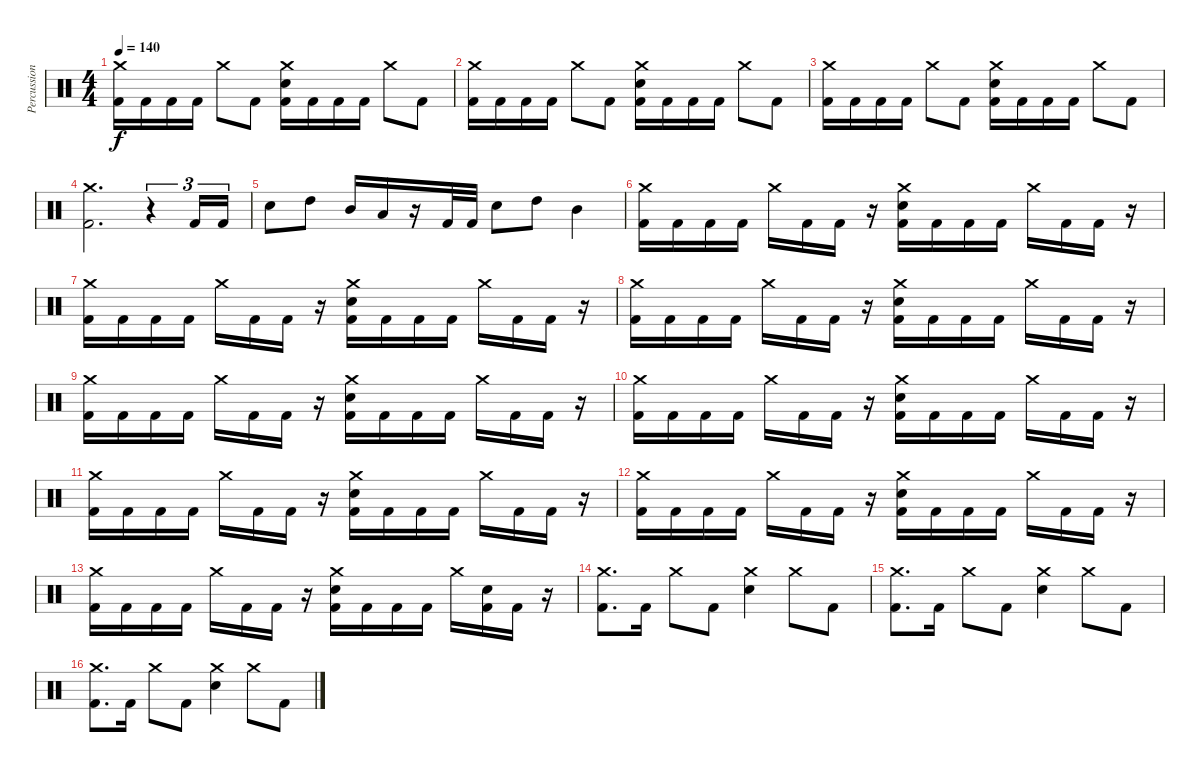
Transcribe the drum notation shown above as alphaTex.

\track ("Percussion" "Percussion") {instrument percussion}
\staff {score}
\articulation defaults
\ts (4 4)
\tempo 140
\clef neutral
\ks c
("Crash medium (hit)" "Kick (hit) 2").16{dy f} "Kick (hit) 2".16 "Kick (hit) 2".16 "Kick (hit) 2".16 "Crash medium (hit)".8 "Kick (hit) 2".8 ("Crash medium (hit)" "Electric Snare (hit)" "Kick (hit) 2").16 "Kick (hit) 2".16 "Kick (hit) 2".16 "Kick (hit) 2".16 "Crash medium (hit)".8 "Kick (hit) 2".8 |
("Crash medium (hit)" "Kick (hit) 2").16 "Kick (hit) 2".16 "Kick (hit) 2".16 "Kick (hit) 2".16 "Crash medium (hit)".8 "Kick (hit) 2".8 ("Crash medium (hit)" "Electric Snare (hit)" "Kick (hit) 2").16 "Kick (hit) 2".16 "Kick (hit) 2".16 "Kick (hit) 2".16 "Crash medium (hit)".8 "Kick (hit) 2".8 |
("Crash medium (hit)" "Kick (hit) 2").16 "Kick (hit) 2".16 "Kick (hit) 2".16 "Kick (hit) 2".16 "Crash medium (hit)".8 "Kick (hit) 2".8 ("Crash medium (hit)" "Electric Snare (hit)" "Kick (hit) 2").16 "Kick (hit) 2".16 "Kick (hit) 2".16 "Kick (hit) 2".16 "Crash medium (hit)".8 "Kick (hit) 2".8 |
("Crash medium (hit)" "Kick (hit) 2").2{d} r.4{tu (3 2)} "Kick (hit) 2".16{tu (3 2)} "Kick (hit) 2".16{tu (3 2)} |
"Electric Snare (hit)".8 "High Tom (hit)".8 "Mid Tom (hit)".16 "Low Tom (hit)".16 r.16 "Kick (hit) 2".32 "Kick (hit) 2".32 "Electric Snare (hit)".8 "High Tom (hit)".8 "Mid Tom (hit)".4 |
("Crash medium (hit)" "Kick (hit) 2").16 "Kick (hit) 2".16 "Kick (hit) 2".16 "Kick (hit) 2".16 "Crash medium (hit)".16 "Kick (hit) 2".16 "Kick (hit) 2".16 r.16 ("Crash medium (hit)" "Electric Snare (hit)" "Kick (hit) 2").16 "Kick (hit) 2".16 "Kick (hit) 2".16 "Kick (hit) 2".16 "Crash medium (hit)".16 "Kick (hit) 2".16 "Kick (hit) 2".16 r.16 |
("Crash medium (hit)" "Kick (hit) 2").16 "Kick (hit) 2".16 "Kick (hit) 2".16 "Kick (hit) 2".16 "Crash medium (hit)".16 "Kick (hit) 2".16 "Kick (hit) 2".16 r.16 ("Crash medium (hit)" "Electric Snare (hit)" "Kick (hit) 2").16 "Kick (hit) 2".16 "Kick (hit) 2".16 "Kick (hit) 2".16 "Crash medium (hit)".16 "Kick (hit) 2".16 "Kick (hit) 2".16 r.16 |
("Crash medium (hit)" "Kick (hit) 2").16 "Kick (hit) 2".16 "Kick (hit) 2".16 "Kick (hit) 2".16 "Crash medium (hit)".16 "Kick (hit) 2".16 "Kick (hit) 2".16 r.16 ("Crash medium (hit)" "Electric Snare (hit)" "Kick (hit) 2").16 "Kick (hit) 2".16 "Kick (hit) 2".16 "Kick (hit) 2".16 "Crash medium (hit)".16 "Kick (hit) 2".16 "Kick (hit) 2".16 r.16 |
("Crash medium (hit)" "Kick (hit) 2").16 "Kick (hit) 2".16 "Kick (hit) 2".16 "Kick (hit) 2".16 "Crash medium (hit)".16 "Kick (hit) 2".16 "Kick (hit) 2".16 r.16 ("Crash medium (hit)" "Electric Snare (hit)" "Kick (hit) 2").16 "Kick (hit) 2".16 "Kick (hit) 2".16 "Kick (hit) 2".16 "Crash medium (hit)".16 "Kick (hit) 2".16 "Kick (hit) 2".16 r.16 |
("Crash medium (hit)" "Kick (hit) 2").16 "Kick (hit) 2".16 "Kick (hit) 2".16 "Kick (hit) 2".16 "Crash medium (hit)".16 "Kick (hit) 2".16 "Kick (hit) 2".16 r.16 ("Crash medium (hit)" "Electric Snare (hit)" "Kick (hit) 2").16 "Kick (hit) 2".16 "Kick (hit) 2".16 "Kick (hit) 2".16 "Crash medium (hit)".16 "Kick (hit) 2".16 "Kick (hit) 2".16 r.16 |
("Crash medium (hit)" "Kick (hit) 2").16 "Kick (hit) 2".16 "Kick (hit) 2".16 "Kick (hit) 2".16 "Crash medium (hit)".16 "Kick (hit) 2".16 "Kick (hit) 2".16 r.16 ("Crash medium (hit)" "Electric Snare (hit)" "Kick (hit) 2").16 "Kick (hit) 2".16 "Kick (hit) 2".16 "Kick (hit) 2".16 "Crash medium (hit)".16 "Kick (hit) 2".16 "Kick (hit) 2".16 r.16 |
("Crash medium (hit)" "Kick (hit) 2").16 "Kick (hit) 2".16 "Kick (hit) 2".16 "Kick (hit) 2".16 "Crash medium (hit)".16 "Kick (hit) 2".16 "Kick (hit) 2".16 r.16 ("Crash medium (hit)" "Electric Snare (hit)" "Kick (hit) 2").16 "Kick (hit) 2".16 "Kick (hit) 2".16 "Kick (hit) 2".16 "Crash medium (hit)".16 "Kick (hit) 2".16 "Kick (hit) 2".16 r.16 |
("Crash medium (hit)" "Kick (hit) 2").16 "Kick (hit) 2".16 "Kick (hit) 2".16 "Kick (hit) 2".16 "Crash medium (hit)".16 "Kick (hit) 2".16 "Kick (hit) 2".16 r.16 ("Crash medium (hit)" "Electric Snare (hit)" "Kick (hit) 2").16 "Kick (hit) 2".16 "Kick (hit) 2".16 "Kick (hit) 2".16 "Crash medium (hit)".16 ("Electric Snare (hit)" "Kick (hit) 2").16 "Kick (hit) 2".16 r.16 |
("Crash medium (hit)" "Kick (hit) 2").8{d} "Kick (hit) 2".16 "Crash medium (hit)".8 "Kick (hit) 2".8 ("Crash medium (hit)" "Electric Snare (hit)").4 "Crash medium (hit)".8 "Kick (hit) 2".8 |
("Crash medium (hit)" "Kick (hit) 2").8{d} "Kick (hit) 2".16 "Crash medium (hit)".8 "Kick (hit) 2".8 ("Crash medium (hit)" "Electric Snare (hit)").4 "Crash medium (hit)".8 "Kick (hit) 2".8 |
("Crash medium (hit)" "Kick (hit) 2").8{d} "Kick (hit) 2".16 "Crash medium (hit)".8 "Kick (hit) 2".8 ("Crash medium (hit)" "Electric Snare (hit)").4 "Crash medium (hit)".8 "Kick (hit) 2".8
